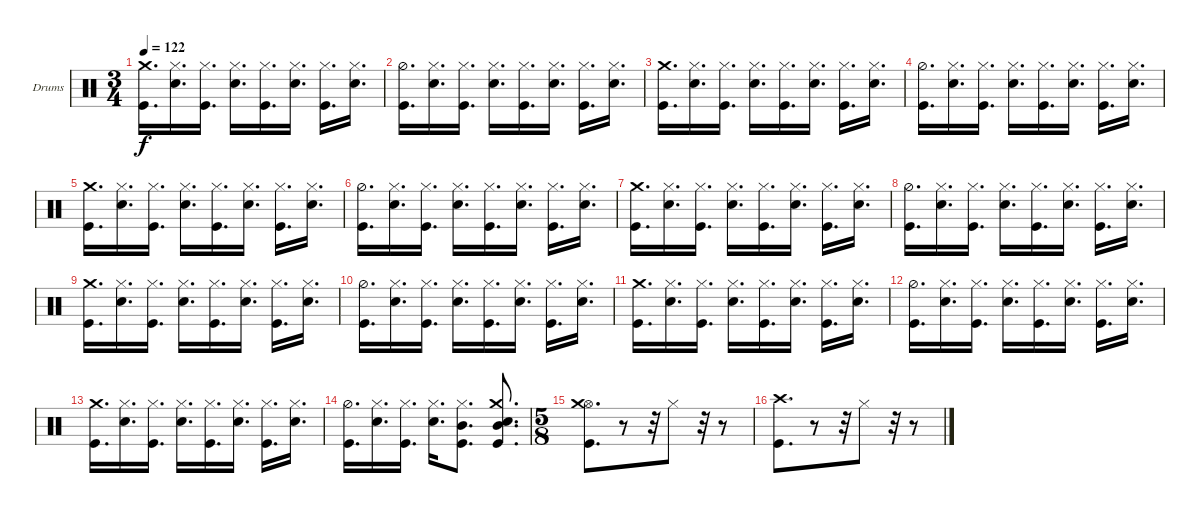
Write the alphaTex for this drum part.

\defaultSystemsLayout 4
\bracketExtendMode groupsimilarinstruments
\firstSystemTrackNameOrientation horizontal
\otherSystemsTrackNameOrientation horizontal
\track ("Drumkit" "Drums") {instrument percussion}
\staff {score}
\articulation defaults
\ts (3 4)
\tempo 122
\clef neutral
\ks c
("Kick (hit)" "Crash medium (hit)").16{d dy f} ("Snare (hit) 2" "Hi-Hat (closed)").16{d} ("Kick (hit)" "Hi-Hat (closed)").16{d} ("Snare (hit) 2" "Hi-Hat (closed)").16{d} ("Kick (hit)" "Hi-Hat (closed)").16{d} ("Snare (hit) 2" "Hi-Hat (closed)").16{d} ("Kick (hit)" "Hi-Hat (closed)").16{d} ("Snare (hit) 2" "Hi-Hat (closed)").16{d} |
("Kick (hit)" "Hi-Hat (half)").16{d} ("Snare (hit) 2" "Hi-Hat (closed)").16{d} ("Kick (hit)" "Hi-Hat (closed)").16{d} ("Snare (hit) 2" "Hi-Hat (closed)").16{d} ("Kick (hit)" "Hi-Hat (closed)").16{d} ("Snare (hit) 2" "Hi-Hat (closed)").16{d} ("Kick (hit)" "Hi-Hat (closed)").16{d} ("Snare (hit) 2" "Hi-Hat (closed)").16{d} |
("Kick (hit)" "Crash medium (hit)").16{d} ("Snare (hit) 2" "Hi-Hat (closed)").16{d} ("Kick (hit)" "Hi-Hat (closed)").16{d} ("Snare (hit) 2" "Hi-Hat (closed)").16{d} ("Kick (hit)" "Hi-Hat (closed)").16{d} ("Snare (hit) 2" "Hi-Hat (closed)").16{d} ("Kick (hit)" "Hi-Hat (closed)").16{d} ("Snare (hit) 2" "Hi-Hat (closed)").16{d} |
("Kick (hit)" "Hi-Hat (half)").16{d} ("Snare (hit) 2" "Hi-Hat (closed)").16{d} ("Kick (hit)" "Hi-Hat (closed)").16{d} ("Snare (hit) 2" "Hi-Hat (closed)").16{d} ("Kick (hit)" "Hi-Hat (closed)").16{d} ("Snare (hit) 2" "Hi-Hat (closed)").16{d} ("Kick (hit)" "Hi-Hat (closed)").16{d} ("Snare (hit) 2" "Hi-Hat (closed)").16{d} |
("Kick (hit)" "Crash medium (hit)").16{d} ("Snare (hit) 2" "Hi-Hat (closed)").16{d} ("Kick (hit)" "Hi-Hat (closed)").16{d} ("Snare (hit) 2" "Hi-Hat (closed)").16{d} ("Kick (hit)" "Hi-Hat (closed)").16{d} ("Snare (hit) 2" "Hi-Hat (closed)").16{d} ("Kick (hit)" "Hi-Hat (closed)").16{d} ("Snare (hit) 2" "Hi-Hat (closed)").16{d} |
("Kick (hit)" "Hi-Hat (half)").16{d} ("Snare (hit) 2" "Hi-Hat (closed)").16{d} ("Kick (hit)" "Hi-Hat (closed)").16{d} ("Snare (hit) 2" "Hi-Hat (closed)").16{d} ("Kick (hit)" "Hi-Hat (closed)").16{d} ("Snare (hit) 2" "Hi-Hat (closed)").16{d} ("Kick (hit)" "Hi-Hat (closed)").16{d} ("Snare (hit) 2" "Hi-Hat (closed)").16{d} |
("Kick (hit)" "Crash medium (hit)").16{d} ("Snare (hit) 2" "Hi-Hat (closed)").16{d} ("Kick (hit)" "Hi-Hat (closed)").16{d} ("Snare (hit) 2" "Hi-Hat (closed)").16{d} ("Kick (hit)" "Hi-Hat (closed)").16{d} ("Snare (hit) 2" "Hi-Hat (closed)").16{d} ("Kick (hit)" "Hi-Hat (closed)").16{d} ("Snare (hit) 2" "Hi-Hat (closed)").16{d} |
("Kick (hit)" "Hi-Hat (half)").16{d} ("Snare (hit) 2" "Hi-Hat (closed)").16{d} ("Kick (hit)" "Hi-Hat (closed)").16{d} ("Snare (hit) 2" "Hi-Hat (closed)").16{d} ("Kick (hit)" "Hi-Hat (closed)").16{d} ("Snare (hit) 2" "Hi-Hat (closed)").16{d} ("Kick (hit)" "Hi-Hat (closed)").16{d} ("Snare (hit) 2" "Hi-Hat (closed)").16{d} |
("Kick (hit)" "Crash medium (hit)").16{d} ("Snare (hit) 2" "Hi-Hat (closed)").16{d} ("Kick (hit)" "Hi-Hat (closed)").16{d} ("Snare (hit) 2" "Hi-Hat (closed)").16{d} ("Kick (hit)" "Hi-Hat (closed)").16{d} ("Snare (hit) 2" "Hi-Hat (closed)").16{d} ("Kick (hit)" "Hi-Hat (closed)").16{d} ("Snare (hit) 2" "Hi-Hat (closed)").16{d} |
("Kick (hit)" "Hi-Hat (half)").16{d} ("Snare (hit) 2" "Hi-Hat (closed)").16{d} ("Kick (hit)" "Hi-Hat (closed)").16{d} ("Snare (hit) 2" "Hi-Hat (closed)").16{d} ("Kick (hit)" "Hi-Hat (closed)").16{d} ("Snare (hit) 2" "Hi-Hat (closed)").16{d} ("Kick (hit)" "Hi-Hat (closed)").16{d} ("Snare (hit) 2" "Hi-Hat (closed)").16{d} |
("Kick (hit)" "Crash medium (hit)").16{d} ("Snare (hit) 2" "Hi-Hat (closed)").16{d} ("Kick (hit)" "Hi-Hat (closed)").16{d} ("Snare (hit) 2" "Hi-Hat (closed)").16{d} ("Kick (hit)" "Hi-Hat (closed)").16{d} ("Snare (hit) 2" "Hi-Hat (closed)").16{d} ("Kick (hit)" "Hi-Hat (closed)").16{d} ("Snare (hit) 2" "Hi-Hat (closed)").16{d} |
("Kick (hit)" "Hi-Hat (half)").16{d} ("Snare (hit) 2" "Hi-Hat (closed)").16{d} ("Kick (hit)" "Hi-Hat (closed)").16{d} ("Snare (hit) 2" "Hi-Hat (closed)").16{d} ("Kick (hit)" "Hi-Hat (closed)").16{d} ("Snare (hit) 2" "Hi-Hat (closed)").16{d} ("Kick (hit)" "Hi-Hat (closed)").16{d} ("Snare (hit) 2" "Hi-Hat (closed)").16{d} |
("Kick (hit)" "Crash medium (hit)").16{d} ("Snare (hit) 2" "Hi-Hat (closed)").16{d} ("Kick (hit)" "Hi-Hat (closed)").16{d} ("Snare (hit) 2" "Hi-Hat (closed)").16{d} ("Kick (hit)" "Hi-Hat (closed)").16{d} ("Snare (hit) 2" "Hi-Hat (closed)").16{d} ("Kick (hit)" "Hi-Hat (closed)").16{d} ("Snare (hit) 2" "Hi-Hat (closed)").16{d} |
("Kick (hit)" "Hi-Hat (half)").16{d} ("Snare (hit) 2" "Hi-Hat (closed)").16{d} ("Kick (hit)" "Hi-Hat (closed)").16{d} ("Snare (hit) 2" "Hi-Hat (closed)").16{d} ("Kick (hit)" "Hi-Hat (closed)" "Mid Tom (hit)").8{d} ("Snare (hit) 2" "Mid Tom (hit)" "Crash medium (hit)" "Kick (hit)").8{d} |
\ts (5 8)
("Hi-Hat (open)" "Crash medium (hit)" "Kick (hit)").8{d} r.8 r.32 "Hi-Hat (closed)".8 r.32 r.8 |
("Kick (hit)" "Crash high (hit)").8{d} r.8 r.32 "Hi-Hat (closed)".8 r.32 r.8
